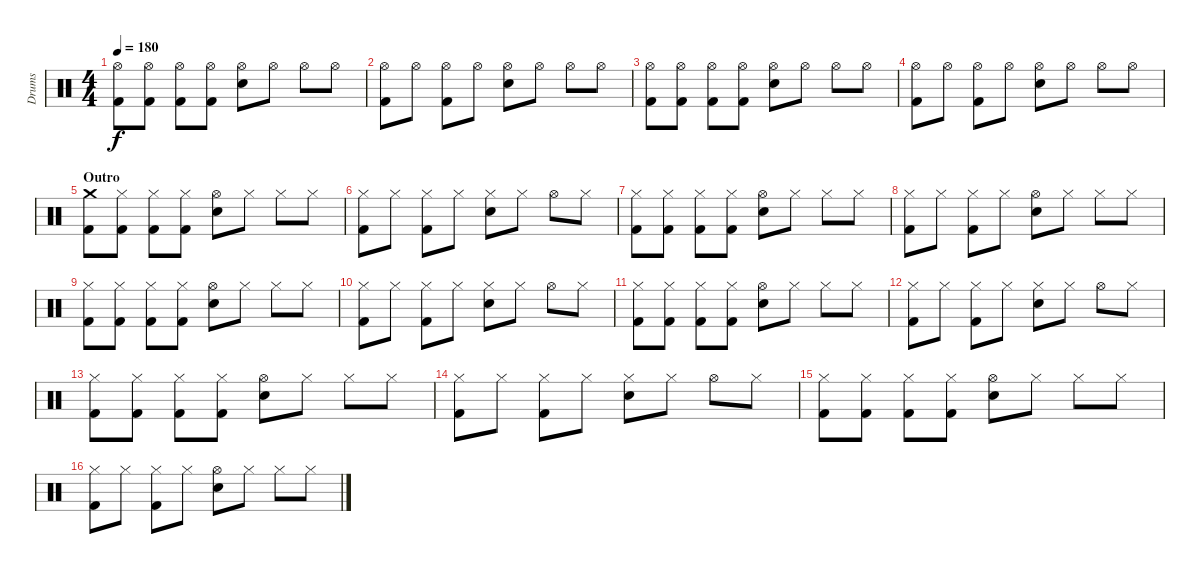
\track ("Drums" "Drums") {instrument percussion}
\staff {score}
\articulation defaults
\ts (4 4)
\tempo 180
\clef neutral
\ks c
("Hi-Hat (open)" "Kick (hit) 2").8{dy f} ("Hi-Hat (open)" "Kick (hit) 2").8 ("Hi-Hat (open)" "Kick (hit) 2").8 ("Hi-Hat (open)" "Kick (hit) 2").8 ("Hi-Hat (open)" "Electric Snare (hit)").8 "Hi-Hat (open)".8 "Hi-Hat (open)".8 "Hi-Hat (open)".8 |
("Hi-Hat (open)" "Kick (hit) 2").8 "Hi-Hat (open)".8 ("Hi-Hat (open)" "Kick (hit) 2").8 "Hi-Hat (open)".8 ("Hi-Hat (open)" "Electric Snare (hit)").8 "Hi-Hat (open)".8 "Hi-Hat (open)".8 "Hi-Hat (open)".8 |
("Hi-Hat (open)" "Kick (hit) 2").8 ("Hi-Hat (open)" "Kick (hit) 2").8 ("Hi-Hat (open)" "Kick (hit) 2").8 ("Hi-Hat (open)" "Kick (hit) 2").8 ("Hi-Hat (open)" "Electric Snare (hit)").8 "Hi-Hat (open)".8 "Hi-Hat (open)".8 "Hi-Hat (open)".8 |
("Hi-Hat (open)" "Kick (hit) 2").8 "Hi-Hat (open)".8 ("Hi-Hat (open)" "Kick (hit) 2").8 "Hi-Hat (open)".8 ("Hi-Hat (open)" "Electric Snare (hit)").8 "Hi-Hat (open)".8 "Hi-Hat (open)".8 "Hi-Hat (open)".8 |
\section ("" "Outro")
("Crash medium (hit)" "Kick (hit) 2").8 ("Hi-Hat (closed)" "Kick (hit) 2").8 ("Hi-Hat (closed)" "Kick (hit) 2").8 ("Hi-Hat (closed)" "Kick (hit) 2").8 ("Hi-Hat (open)" "Electric Snare (hit)").8 "Hi-Hat (closed)".8 "Hi-Hat (closed)".8 "Hi-Hat (closed)".8 |
("Hi-Hat (closed)" "Kick (hit) 2").8 "Hi-Hat (closed)".8 ("Hi-Hat (closed)" "Kick (hit) 2").8 "Hi-Hat (closed)".8 ("Hi-Hat (closed)" "Electric Snare (hit)").8 "Hi-Hat (closed)".8 "Hi-Hat (open)".8 "Hi-Hat (closed)".8 |
("Hi-Hat (closed)" "Kick (hit) 2").8 ("Hi-Hat (closed)" "Kick (hit) 2").8 ("Hi-Hat (closed)" "Kick (hit) 2").8 ("Hi-Hat (closed)" "Kick (hit) 2").8 ("Hi-Hat (open)" "Electric Snare (hit)").8 "Hi-Hat (closed)".8 "Hi-Hat (closed)".8 "Hi-Hat (closed)".8 |
("Hi-Hat (closed)" "Kick (hit) 2").8 "Hi-Hat (closed)".8 ("Hi-Hat (closed)" "Kick (hit) 2").8 "Hi-Hat (closed)".8 ("Hi-Hat (open)" "Electric Snare (hit)").8 "Hi-Hat (closed)".8 "Hi-Hat (closed)".8 "Hi-Hat (closed)".8 |
("Hi-Hat (closed)" "Kick (hit) 2").8 ("Hi-Hat (closed)" "Kick (hit) 2").8 ("Hi-Hat (closed)" "Kick (hit) 2").8 ("Hi-Hat (closed)" "Kick (hit) 2").8 ("Hi-Hat (open)" "Electric Snare (hit)").8 "Hi-Hat (closed)".8 "Hi-Hat (closed)".8 "Hi-Hat (closed)".8 |
("Hi-Hat (closed)" "Kick (hit) 2").8 "Hi-Hat (closed)".8 ("Hi-Hat (closed)" "Kick (hit) 2").8 "Hi-Hat (closed)".8 ("Hi-Hat (closed)" "Electric Snare (hit)").8 "Hi-Hat (closed)".8 "Hi-Hat (open)".8 "Hi-Hat (closed)".8 |
("Hi-Hat (closed)" "Kick (hit) 2").8 ("Hi-Hat (closed)" "Kick (hit) 2").8 ("Hi-Hat (closed)" "Kick (hit) 2").8 ("Hi-Hat (closed)" "Kick (hit) 2").8 ("Hi-Hat (open)" "Electric Snare (hit)").8 "Hi-Hat (closed)".8 "Hi-Hat (closed)".8 "Hi-Hat (closed)".8 |
("Hi-Hat (closed)" "Kick (hit) 2").8 "Hi-Hat (closed)".8 ("Hi-Hat (closed)" "Kick (hit) 2").8 "Hi-Hat (closed)".8 ("Hi-Hat (closed)" "Electric Snare (hit)").8 "Hi-Hat (closed)".8 "Hi-Hat (open)".8 "Hi-Hat (closed)".8 |
("Hi-Hat (closed)" "Kick (hit) 2").8 ("Hi-Hat (closed)" "Kick (hit) 2").8 ("Hi-Hat (closed)" "Kick (hit) 2").8 ("Hi-Hat (closed)" "Kick (hit) 2").8 ("Hi-Hat (open)" "Electric Snare (hit)").8 "Hi-Hat (closed)".8 "Hi-Hat (closed)".8 "Hi-Hat (closed)".8 |
("Hi-Hat (closed)" "Kick (hit) 2").8 "Hi-Hat (closed)".8 ("Hi-Hat (closed)" "Kick (hit) 2").8 "Hi-Hat (closed)".8 ("Hi-Hat (closed)" "Electric Snare (hit)").8 "Hi-Hat (closed)".8 "Hi-Hat (open)".8 "Hi-Hat (closed)".8 |
("Hi-Hat (closed)" "Kick (hit) 2").8 ("Hi-Hat (closed)" "Kick (hit) 2").8 ("Hi-Hat (closed)" "Kick (hit) 2").8 ("Hi-Hat (closed)" "Kick (hit) 2").8 ("Hi-Hat (open)" "Electric Snare (hit)").8 "Hi-Hat (closed)".8 "Hi-Hat (closed)".8 "Hi-Hat (closed)".8 |
("Hi-Hat (closed)" "Kick (hit) 2").8 "Hi-Hat (closed)".8 ("Hi-Hat (closed)" "Kick (hit) 2").8 "Hi-Hat (closed)".8 ("Hi-Hat (open)" "Electric Snare (hit)").8 "Hi-Hat (closed)".8 "Hi-Hat (closed)".8 "Hi-Hat (closed)".8
